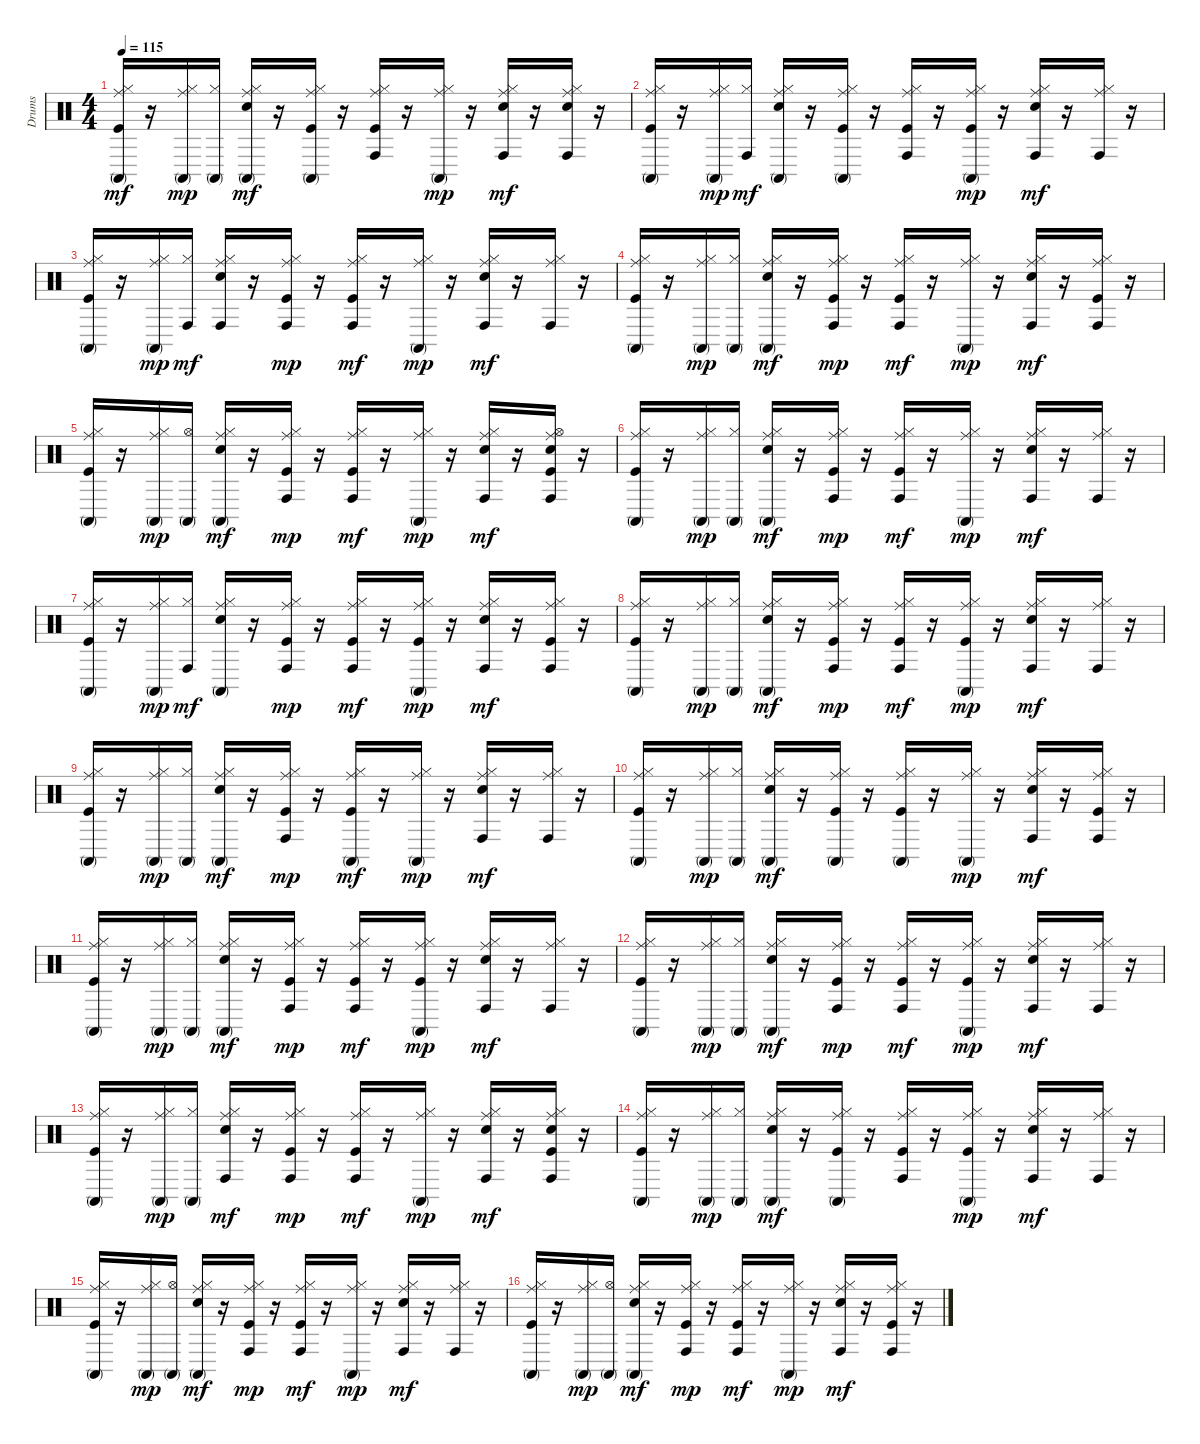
\track ("Drums" "Drums") {instrument percussion}
\staff {score}
\articulation defaults
\ts (4 4)
\tempo 115
\clef neutral
\ks c
("Kick (hit)" "Hi-Hat (closed)" "Ride (middle)" "Conga high (mute)").16{dy mf} r.16 ("Hi-Hat (closed)" "Ride (middle)" "Conga high (mute)").16{dy mp} ("Hi-Hat (closed)" "Conga high (mute)").16 ("Snare (hit) 2" "Hi-Hat (closed)" "Ride (middle)" "Conga high (mute)").16{dy mf} r.16 ("Kick (hit)" "Hi-Hat (closed)" "Ride (middle)" "Conga high (mute)").16 r.16 ("Kick (hit)" "Hi-Hat (closed)" "Ride (middle)" "Conga high (hit)").16 r.16 ("Hi-Hat (closed)" "Ride (middle)" "Conga high (mute)").16{dy mp} r.16 ("Snare (hit) 2" "Hi-Hat (closed)" "Ride (middle)" "Conga high (hit)").16{dy mf} r.16 ("Snare (hit) 2" "Hi-Hat (closed)" "Ride (middle)" "Conga high (hit)").16 r.16 |
("Kick (hit)" "Hi-Hat (closed)" "Ride (middle)" "Conga high (mute)").16 r.16 ("Hi-Hat (closed)" "Ride (middle)" "Conga high (mute)").16{dy mp} ("Hi-Hat (closed)" "Conga high (hit)").16{dy mf} ("Snare (hit) 2" "Hi-Hat (closed)" "Ride (middle)" "Conga high (mute)").16 r.16 ("Kick (hit)" "Hi-Hat (closed)" "Ride (middle)" "Conga high (mute)").16 r.16 ("Kick (hit)" "Hi-Hat (closed)" "Ride (middle)" "Conga high (hit)").16 r.16 ("Kick (hit)" "Hi-Hat (closed)" "Ride (middle)" "Conga high (mute)").16{dy mp} r.16 ("Snare (hit) 2" "Hi-Hat (closed)" "Ride (middle)" "Conga high (hit)").16{dy mf} r.16 ("Hi-Hat (closed)" "Ride (middle)" "Conga high (hit)").16 r.16 |
("Kick (hit)" "Hi-Hat (closed)" "Ride (middle)" "Conga high (mute)").16 r.16 ("Hi-Hat (closed)" "Ride (middle)" "Conga high (mute)").16{dy mp} ("Hi-Hat (closed)" "Conga high (hit)").16{dy mf} ("Snare (hit) 2" "Hi-Hat (closed)" "Ride (middle)" "Conga high (hit)").16 r.16 ("Kick (hit)" "Hi-Hat (closed)" "Ride (middle)" "Conga high (hit)").16{dy mp} r.16 ("Kick (hit)" "Hi-Hat (closed)" "Ride (middle)" "Conga high (hit)").16{dy mf} r.16 ("Hi-Hat (closed)" "Ride (middle)" "Conga high (mute)").16{dy mp} r.16 ("Snare (hit) 2" "Hi-Hat (closed)" "Ride (middle)" "Conga high (hit)").16{dy mf} r.16 ("Hi-Hat (closed)" "Ride (middle)" "Conga high (hit)").16 r.16 |
("Kick (hit)" "Hi-Hat (closed)" "Ride (middle)" "Conga high (mute)").16 r.16 ("Hi-Hat (closed)" "Ride (middle)" "Conga high (mute)").16{dy mp} ("Hi-Hat (closed)" "Conga high (mute)").16 ("Snare (hit) 2" "Hi-Hat (closed)" "Ride (middle)" "Conga high (mute)").16{dy mf} r.16 ("Kick (hit)" "Hi-Hat (closed)" "Ride (middle)" "Conga high (hit)").16{dy mp} r.16 ("Kick (hit)" "Hi-Hat (closed)" "Ride (middle)" "Conga high (hit)").16{dy mf} r.16 ("Hi-Hat (closed)" "Ride (middle)" "Conga high (mute)").16{dy mp} r.16 ("Snare (hit) 2" "Hi-Hat (closed)" "Ride (middle)" "Conga high (hit)").16{dy mf} r.16 ("Kick (hit)" "Hi-Hat (closed)" "Ride (middle)" "Conga high (hit)").16 r.16 |
("Kick (hit)" "Hi-Hat (closed)" "Ride (middle)" "Conga high (mute)").16 r.16 ("Hi-Hat (closed)" "Ride (middle)" "Conga high (mute)").16{dy mp} ("Hi-Hat (open)" "Conga high (mute)").16 ("Snare (hit) 2" "Hi-Hat (closed)" "Ride (middle)" "Conga high (mute)").16{dy mf} r.16 ("Kick (hit)" "Hi-Hat (closed)" "Ride (middle)" "Conga high (hit)").16{dy mp} r.16 ("Kick (hit)" "Hi-Hat (closed)" "Ride (middle)" "Conga high (hit)").16{dy mf} r.16 ("Hi-Hat (closed)" "Ride (middle)" "Conga high (mute)").16{dy mp} r.16 ("Snare (hit) 2" "Hi-Hat (closed)" "Ride (middle)" "Conga high (hit)").16{dy mf} r.16 ("Kick (hit)" "Snare (hit) 2" "Hi-Hat (open)" "Ride (middle)" "Conga high (hit)").16 r.16 |
("Kick (hit)" "Hi-Hat (closed)" "Ride (middle)" "Conga high (mute)").16 r.16 ("Hi-Hat (closed)" "Ride (middle)" "Conga high (mute)").16{dy mp} ("Hi-Hat (closed)" "Conga high (mute)").16 ("Snare (hit) 2" "Hi-Hat (closed)" "Ride (middle)" "Conga high (mute)").16{dy mf} r.16 ("Kick (hit)" "Hi-Hat (closed)" "Ride (middle)" "Conga high (hit)").16{dy mp} r.16 ("Kick (hit)" "Hi-Hat (closed)" "Ride (middle)" "Conga high (hit)").16{dy mf} r.16 ("Hi-Hat (closed)" "Ride (middle)" "Conga high (mute)").16{dy mp} r.16 ("Snare (hit) 2" "Hi-Hat (closed)" "Ride (middle)" "Conga high (hit)").16{dy mf} r.16 ("Hi-Hat (closed)" "Ride (middle)" "Conga high (hit)").16 r.16 |
("Kick (hit)" "Hi-Hat (closed)" "Ride (middle)" "Conga high (mute)").16 r.16 ("Hi-Hat (closed)" "Ride (middle)" "Conga high (mute)").16{dy mp} ("Hi-Hat (closed)" "Conga high (hit)").16{dy mf} ("Snare (hit) 2" "Hi-Hat (closed)" "Ride (middle)" "Conga high (mute)").16 r.16 ("Kick (hit)" "Hi-Hat (closed)" "Ride (middle)" "Conga high (hit)").16{dy mp} r.16 ("Kick (hit)" "Hi-Hat (closed)" "Ride (middle)" "Conga high (hit)").16{dy mf} r.16 ("Kick (hit)" "Hi-Hat (closed)" "Ride (middle)" "Conga high (mute)").16{dy mp} r.16 ("Snare (hit) 2" "Hi-Hat (closed)" "Ride (middle)" "Conga high (hit)").16{dy mf} r.16 ("Kick (hit)" "Hi-Hat (closed)" "Ride (middle)" "Conga high (hit)").16 r.16 |
("Kick (hit)" "Hi-Hat (closed)" "Ride (middle)" "Conga high (mute)").16 r.16 ("Hi-Hat (closed)" "Ride (middle)" "Conga high (mute)").16{dy mp} ("Hi-Hat (closed)" "Conga high (mute)").16 ("Snare (hit) 2" "Hi-Hat (closed)" "Ride (middle)" "Conga high (mute)").16{dy mf} r.16 ("Kick (hit)" "Hi-Hat (closed)" "Ride (middle)" "Conga high (hit)").16{dy mp} r.16 ("Kick (hit)" "Hi-Hat (closed)" "Ride (middle)" "Conga high (hit)").16{dy mf} r.16 ("Kick (hit)" "Hi-Hat (closed)" "Ride (middle)" "Conga high (mute)").16{dy mp} r.16 ("Snare (hit) 2" "Hi-Hat (closed)" "Ride (middle)" "Conga high (hit)").16{dy mf} r.16 ("Hi-Hat (closed)" "Ride (middle)" "Conga high (hit)").16 r.16 |
("Kick (hit)" "Hi-Hat (closed)" "Ride (middle)" "Conga high (mute)").16 r.16 ("Hi-Hat (closed)" "Ride (middle)" "Conga high (mute)").16{dy mp} ("Hi-Hat (closed)" "Conga high (mute)").16 ("Snare (hit) 2" "Hi-Hat (closed)" "Ride (middle)" "Conga high (mute)").16{dy mf} r.16 ("Kick (hit)" "Hi-Hat (closed)" "Ride (middle)" "Conga high (hit)").16{dy mp} r.16 ("Kick (hit)" "Hi-Hat (closed)" "Ride (middle)" "Conga high (mute)").16{dy mf} r.16 ("Hi-Hat (closed)" "Ride (middle)" "Conga high (mute)").16{dy mp} r.16 ("Snare (hit) 2" "Hi-Hat (closed)" "Ride (middle)" "Conga high (hit)").16{dy mf} r.16 ("Hi-Hat (closed)" "Ride (middle)" "Conga high (hit)").16 r.16 |
("Kick (hit)" "Hi-Hat (closed)" "Ride (middle)" "Conga high (mute)").16 r.16 ("Hi-Hat (closed)" "Ride (middle)" "Conga high (mute)").16{dy mp} ("Hi-Hat (closed)" "Conga high (mute)").16 ("Snare (hit) 2" "Hi-Hat (closed)" "Ride (middle)" "Conga high (mute)").16{dy mf} r.16 ("Kick (hit)" "Hi-Hat (closed)" "Ride (middle)" "Conga high (mute)").16 r.16 ("Kick (hit)" "Hi-Hat (closed)" "Ride (middle)" "Conga high (mute)").16 r.16 ("Hi-Hat (closed)" "Ride (middle)" "Conga high (mute)").16{dy mp} r.16 ("Snare (hit) 2" "Hi-Hat (closed)" "Ride (middle)" "Conga high (hit)").16{dy mf} r.16 ("Kick (hit)" "Hi-Hat (closed)" "Ride (middle)" "Conga high (hit)").16 r.16 |
("Kick (hit)" "Hi-Hat (closed)" "Ride (middle)" "Conga high (mute)").16 r.16 ("Hi-Hat (closed)" "Ride (middle)" "Conga high (mute)").16{dy mp} ("Hi-Hat (closed)" "Conga high (mute)").16 ("Snare (hit) 2" "Hi-Hat (closed)" "Ride (middle)" "Conga high (mute)").16{dy mf} r.16 ("Kick (hit)" "Hi-Hat (closed)" "Ride (middle)" "Conga high (hit)").16{dy mp} r.16 ("Kick (hit)" "Hi-Hat (closed)" "Ride (middle)" "Conga high (hit)").16{dy mf} r.16 ("Kick (hit)" "Hi-Hat (closed)" "Ride (middle)" "Conga high (mute)").16{dy mp} r.16 ("Snare (hit) 2" "Hi-Hat (closed)" "Ride (middle)" "Conga high (hit)").16{dy mf} r.16 ("Hi-Hat (closed)" "Ride (middle)" "Conga high (hit)").16 r.16 |
("Kick (hit)" "Hi-Hat (closed)" "Ride (middle)" "Conga high (mute)").16 r.16 ("Hi-Hat (closed)" "Ride (middle)" "Conga high (mute)").16{dy mp} ("Hi-Hat (closed)" "Conga high (mute)").16 ("Snare (hit) 2" "Hi-Hat (closed)" "Ride (middle)" "Conga high (mute)").16{dy mf} r.16 ("Kick (hit)" "Hi-Hat (closed)" "Ride (middle)" "Conga high (hit)").16{dy mp} r.16 ("Kick (hit)" "Hi-Hat (closed)" "Ride (middle)" "Conga high (hit)").16{dy mf} r.16 ("Kick (hit)" "Hi-Hat (closed)" "Ride (middle)" "Conga high (mute)").16{dy mp} r.16 ("Snare (hit) 2" "Hi-Hat (closed)" "Ride (middle)" "Conga high (hit)").16{dy mf} r.16 ("Hi-Hat (closed)" "Ride (middle)" "Conga high (hit)").16 r.16 |
("Kick (hit)" "Hi-Hat (closed)" "Ride (middle)" "Conga high (mute)").16 r.16 ("Hi-Hat (closed)" "Ride (middle)" "Conga high (mute)").16{dy mp} ("Hi-Hat (closed)" "Conga high (mute)").16 ("Snare (hit) 2" "Hi-Hat (closed)" "Ride (middle)" "Conga high (hit)").16{dy mf} r.16 ("Kick (hit)" "Hi-Hat (closed)" "Ride (middle)" "Conga high (hit)").16{dy mp} r.16 ("Kick (hit)" "Hi-Hat (closed)" "Ride (middle)" "Conga high (hit)").16{dy mf} r.16 ("Hi-Hat (closed)" "Ride (middle)" "Conga high (mute)").16{dy mp} r.16 ("Snare (hit) 2" "Hi-Hat (closed)" "Ride (middle)" "Conga high (hit)").16{dy mf} r.16 ("Kick (hit)" "Snare (hit) 2" "Hi-Hat (closed)" "Ride (middle)" "Conga high (hit)").16 r.16 |
("Kick (hit)" "Hi-Hat (closed)" "Ride (middle)" "Conga high (mute)").16 r.16 ("Hi-Hat (closed)" "Ride (middle)" "Conga high (mute)").16{dy mp} ("Hi-Hat (closed)" "Conga high (mute)").16 ("Snare (hit) 2" "Hi-Hat (closed)" "Ride (middle)" "Conga high (mute)").16{dy mf} r.16 ("Kick (hit)" "Hi-Hat (closed)" "Ride (middle)" "Conga high (mute)").16 r.16 ("Kick (hit)" "Hi-Hat (closed)" "Ride (middle)" "Conga high (hit)").16 r.16 ("Kick (hit)" "Hi-Hat (closed)" "Ride (middle)" "Conga high (mute)").16{dy mp} r.16 ("Snare (hit) 2" "Hi-Hat (closed)" "Ride (middle)" "Conga high (hit)").16{dy mf} r.16 ("Hi-Hat (closed)" "Ride (middle)" "Conga high (hit)").16 r.16 |
("Kick (hit)" "Hi-Hat (closed)" "Ride (middle)" "Conga high (mute)").16 r.16 ("Hi-Hat (closed)" "Ride (middle)" "Conga high (mute)").16{dy mp} ("Hi-Hat (open)" "Conga high (mute)").16 ("Snare (hit) 2" "Hi-Hat (closed)" "Ride (middle)" "Conga high (mute)").16{dy mf} r.16 ("Kick (hit)" "Hi-Hat (closed)" "Ride (middle)" "Conga high (hit)").16{dy mp} r.16 ("Kick (hit)" "Hi-Hat (closed)" "Ride (middle)" "Conga high (hit)").16{dy mf} r.16 ("Hi-Hat (closed)" "Ride (middle)" "Conga high (mute)").16{dy mp} r.16 ("Snare (hit) 2" "Hi-Hat (closed)" "Ride (middle)" "Conga high (hit)").16{dy mf} r.16 ("Hi-Hat (closed)" "Ride (middle)" "Conga high (hit)").16 r.16 |
("Kick (hit)" "Hi-Hat (closed)" "Ride (middle)" "Conga high (mute)").16 r.16 ("Hi-Hat (closed)" "Ride (middle)" "Conga high (mute)").16{dy mp} ("Hi-Hat (open)" "Conga high (mute)").16 ("Snare (hit) 2" "Hi-Hat (closed)" "Ride (middle)" "Conga high (mute)").16{dy mf} r.16 ("Kick (hit)" "Hi-Hat (closed)" "Ride (middle)" "Conga high (hit)").16{dy mp} r.16 ("Kick (hit)" "Hi-Hat (closed)" "Ride (middle)" "Conga high (hit)").16{dy mf} r.16 ("Hi-Hat (closed)" "Ride (middle)" "Conga high (mute)").16{dy mp} r.16 ("Snare (hit) 2" "Hi-Hat (closed)" "Ride (middle)" "Conga high (hit)").16{dy mf} r.16 ("Kick (hit)" "Hi-Hat (closed)" "Ride (middle)" "Conga high (hit)").16 r.16
